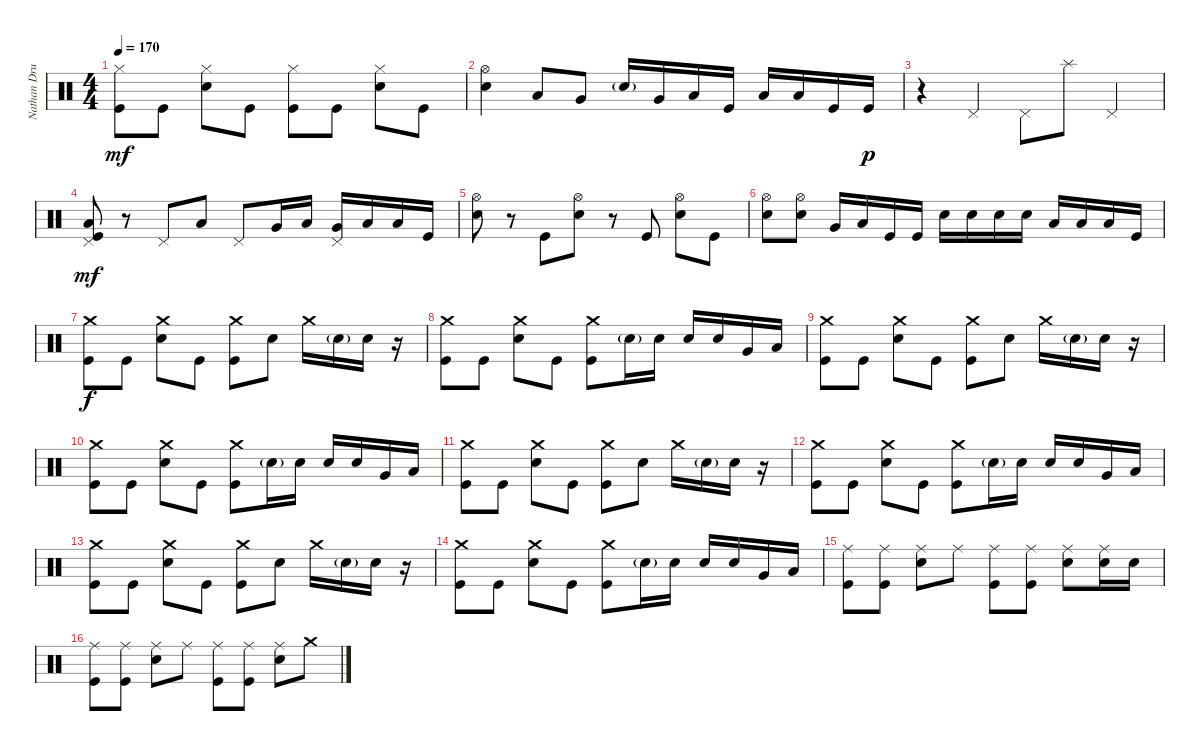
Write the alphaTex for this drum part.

\track ("Nathan Drum Programming" "Nathan Dru") {instrument percussion}
\staff {score}
\articulation defaults
\ts (4 4)
\tempo 170
\clef neutral
\ks c
("Hi-Hat (closed)" "Kick (hit)").8{dy mf} "Kick (hit)".8 ("Hi-Hat (closed)" "Snare (hit) 2").8 "Kick (hit)".8 ("Hi-Hat (closed)" "Kick (hit)").8 "Kick (hit)".8 ("Snare (hit) 2" "Hi-Hat (closed)").8 "Kick (hit)".8 |
("Snare (hit) 2" "Hi-Hat (open)").4 "Low Tom (hit)".8 "Very Low Tom (hit)".8 "Snare (hit) 2"{g}.16 "Very Low Tom (hit)".16 "Low Floor Tom (hit)".16 "Kick (hit)".16 "Low Floor Tom (hit)".16 "Low Floor Tom (hit)".16 "Kick (hit)".16 "Kick (hit)".16{dy p} |
r.4 "Pedal Hi-Hat (hit)".4 "Pedal Hi-Hat (hit)".8 "Splash (hit)".8 "Pedal Hi-Hat (hit)".4 |
("Low Floor Tom (hit)" "Kick (hit)" "Pedal Hi-Hat (hit)").8{dy mf} r.8 "Pedal Hi-Hat (hit)".8 "Low Floor Tom (hit)".8 "Pedal Hi-Hat (hit)".8 "Very Low Tom (hit)".16 "Low Floor Tom (hit)".16 ("Very Low Tom (hit)" "Pedal Hi-Hat (hit)").16 "Low Floor Tom (hit)".16 "Low Floor Tom (hit)".16 "Kick (hit)".16 |
("Snare (hit) 2" "Hi-Hat (open)").8 r.8 "Kick (hit)".8 ("Snare (hit) 2" "Hi-Hat (open)").8 r.8 "Kick (hit)".8 ("Snare (hit) 2" "Hi-Hat (open)").8 "Kick (hit)".8 |
("Snare (hit) 2" "Hi-Hat (open)").8 ("Snare (hit) 2" "Hi-Hat (open)").8 "Very Low Tom (hit)".16 "Low Floor Tom (hit)".16 "Kick (hit)".16 "Kick (hit)".16 "Snare (hit) 2".16 "Snare (hit) 2".16 "Snare (hit) 2".16 "Snare (hit) 2".16 "Low Tom (hit)".16 "Low Floor Tom (hit)".16 "Low Floor Tom (hit)".16 "Kick (hit)".16 |
("Kick (hit)" "Crash medium (hit)").8{dy f} "Kick (hit)".8 ("Crash medium (hit)" "Snare (hit) 2").8 "Kick (hit)".8 ("Kick (hit)" "Crash medium (hit)").8 "Snare (hit) 2".8 "Crash medium (hit)".16 "Snare (hit) 2"{g}.16 "Snare (hit) 2".16 r.16 |
("Kick (hit)" "Crash medium (hit)").8 "Kick (hit)".8 ("Crash medium (hit)" "Snare (hit) 2").8 "Kick (hit)".8 ("Kick (hit)" "Crash medium (hit)").8 "Snare (hit) 2"{g}.16 "Snare (hit) 2".16 "Snare (hit) 2".16 "Snare (hit) 2".16 "Very Low Tom (hit)".16 "Low Floor Tom (hit)".16 |
("Kick (hit)" "Crash medium (hit)").8 "Kick (hit)".8 ("Crash medium (hit)" "Snare (hit) 2").8 "Kick (hit)".8 ("Kick (hit)" "Crash medium (hit)").8 "Snare (hit) 2".8 "Crash medium (hit)".16 "Snare (hit) 2"{g}.16 "Snare (hit) 2".16 r.16 |
("Kick (hit)" "Crash medium (hit)").8 "Kick (hit)".8 ("Crash medium (hit)" "Snare (hit) 2").8 "Kick (hit)".8 ("Kick (hit)" "Crash medium (hit)").8 "Snare (hit) 2"{g}.16 "Snare (hit) 2".16 "Snare (hit) 2".16 "Snare (hit) 2".16 "Very Low Tom (hit)".16 "Low Floor Tom (hit)".16 |
("Kick (hit)" "Crash medium (hit)").8 "Kick (hit)".8 ("Crash medium (hit)" "Snare (hit) 2").8 "Kick (hit)".8 ("Kick (hit)" "Crash medium (hit)").8 "Snare (hit) 2".8 "Crash medium (hit)".16 "Snare (hit) 2"{g}.16 "Snare (hit) 2".16 r.16 |
("Kick (hit)" "Crash medium (hit)").8 "Kick (hit)".8 ("Crash medium (hit)" "Snare (hit) 2").8 "Kick (hit)".8 ("Kick (hit)" "Crash medium (hit)").8 "Snare (hit) 2"{g}.16 "Snare (hit) 2".16 "Snare (hit) 2".16 "Snare (hit) 2".16 "Very Low Tom (hit)".16 "Low Floor Tom (hit)".16 |
("Kick (hit)" "Crash medium (hit)").8 "Kick (hit)".8 ("Crash medium (hit)" "Snare (hit) 2").8 "Kick (hit)".8 ("Kick (hit)" "Crash medium (hit)").8 "Snare (hit) 2".8 "Crash medium (hit)".16 "Snare (hit) 2"{g}.16 "Snare (hit) 2".16 r.16 |
("Kick (hit)" "Crash medium (hit)").8 "Kick (hit)".8 ("Crash medium (hit)" "Snare (hit) 2").8 "Kick (hit)".8 ("Kick (hit)" "Crash medium (hit)").8 "Snare (hit) 2"{g}.16 "Snare (hit) 2".16 "Snare (hit) 2".16 "Snare (hit) 2".16 "Very Low Tom (hit)".16 "Low Floor Tom (hit)".16 |
("Ride (middle)" "Kick (hit)").8 ("Ride (middle)" "Kick (hit)").8 ("Ride (middle)" "Snare (hit) 2").8 "Ride (middle)".8 ("Ride (middle)" "Kick (hit)").8 ("Ride (middle)" "Kick (hit)").8 ("Ride (middle)" "Snare (hit) 2").8 ("Ride (middle)" "Snare (hit) 2").16 "Snare (hit) 2".16 |
("Ride (middle)" "Kick (hit)").8 ("Ride (middle)" "Kick (hit)").8 ("Ride (middle)" "Snare (hit) 2").8 "Ride (middle)".8 ("Ride (middle)" "Kick (hit)").8 ("Ride (middle)" "Kick (hit)").8 ("Ride (middle)" "Snare (hit) 2").8 "Crash medium (hit)".8
